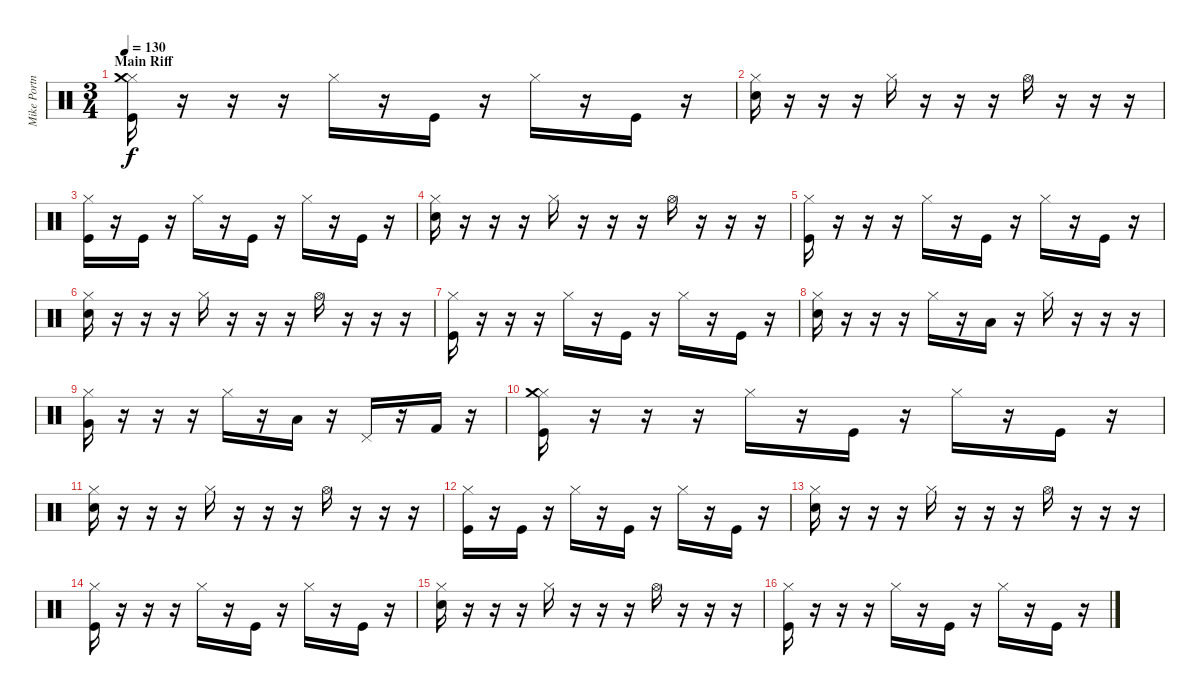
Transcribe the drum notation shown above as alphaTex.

\track ("Mike Portnoy" "Mike Portn") {instrument percussion}
\staff {score}
\articulation defaults
\ts (3 4)
\section ("" "Main Riff")
\tempo 130
\clef neutral
\ks c
("Kick (hit)" "Hi-Hat (closed)" "Crash medium (hit)").16{dy f} r.16 r.16 r.16 "Hi-Hat (closed)".16 r.16 "Kick (hit)".16 r.16 "Hi-Hat (closed)".16 r.16 "Kick (hit)".16 r.16 |
("Electric Snare (hit)" "Hi-Hat (closed)").16 r.16 r.16 r.16 "Hi-Hat (closed)".16 r.16 r.16 r.16 "Hi-Hat (open)".16 r.16 r.16 r.16 |
("Kick (hit)" "Hi-Hat (closed)").16 r.16 "Kick (hit)".16 r.16 "Hi-Hat (closed)".16 r.16 "Kick (hit)".16 r.16 "Hi-Hat (closed)".16 r.16 "Kick (hit)".16 r.16 |
("Electric Snare (hit)" "Hi-Hat (closed)").16 r.16 r.16 r.16 "Hi-Hat (closed)".16 r.16 r.16 r.16 "Hi-Hat (open)".16 r.16 r.16 r.16 |
("Kick (hit)" "Hi-Hat (closed)").16 r.16 r.16 r.16 "Hi-Hat (closed)".16 r.16 "Kick (hit)".16 r.16 "Hi-Hat (closed)".16 r.16 "Kick (hit)".16 r.16 |
("Electric Snare (hit)" "Hi-Hat (closed)").16 r.16 r.16 r.16 "Hi-Hat (closed)".16 r.16 r.16 r.16 "Hi-Hat (open)".16 r.16 r.16 r.16 |
("Kick (hit)" "Hi-Hat (closed)").16 r.16 r.16 r.16 "Hi-Hat (closed)".16 r.16 "Kick (hit)".16 r.16 "Hi-Hat (closed)".16 r.16 "Kick (hit)".16 r.16 |
("Electric Snare (hit)" "Hi-Hat (closed)").16 r.16 r.16 r.16 "Hi-Hat (closed)".16 r.16 "Low Tom (hit)".16 r.16 "Hi-Hat (closed)".16 r.16 r.16 r.16 |
("Very Low Tom (hit)" "Hi-Hat (closed)").16 r.16 r.16 r.16 "Hi-Hat (closed)".16 r.16 "Low Floor Tom (hit)".16 r.16 "Pedal Hi-Hat (hit)".16 r.16 "Kick (hit) 2".16 r.16 |
("Kick (hit)" "Hi-Hat (closed)" "Crash medium (hit)").16 r.16 r.16 r.16 "Hi-Hat (closed)".16 r.16 "Kick (hit)".16 r.16 "Hi-Hat (closed)".16 r.16 "Kick (hit)".16 r.16 |
("Electric Snare (hit)" "Hi-Hat (closed)").16 r.16 r.16 r.16 "Hi-Hat (closed)".16 r.16 r.16 r.16 "Hi-Hat (open)".16 r.16 r.16 r.16 |
("Kick (hit)" "Hi-Hat (closed)").16 r.16 "Kick (hit)".16 r.16 "Hi-Hat (closed)".16 r.16 "Kick (hit)".16 r.16 "Hi-Hat (closed)".16 r.16 "Kick (hit)".16 r.16 |
("Electric Snare (hit)" "Hi-Hat (closed)").16 r.16 r.16 r.16 "Hi-Hat (closed)".16 r.16 r.16 r.16 "Hi-Hat (open)".16 r.16 r.16 r.16 |
("Kick (hit)" "Hi-Hat (closed)").16 r.16 r.16 r.16 "Hi-Hat (closed)".16 r.16 "Kick (hit)".16 r.16 "Hi-Hat (closed)".16 r.16 "Kick (hit)".16 r.16 |
("Electric Snare (hit)" "Hi-Hat (closed)").16 r.16 r.16 r.16 "Hi-Hat (closed)".16 r.16 r.16 r.16 "Hi-Hat (open)".16 r.16 r.16 r.16 |
("Kick (hit)" "Hi-Hat (closed)").16 r.16 r.16 r.16 "Hi-Hat (closed)".16 r.16 "Kick (hit)".16 r.16 "Hi-Hat (closed)".16 r.16 "Kick (hit)".16 r.16
